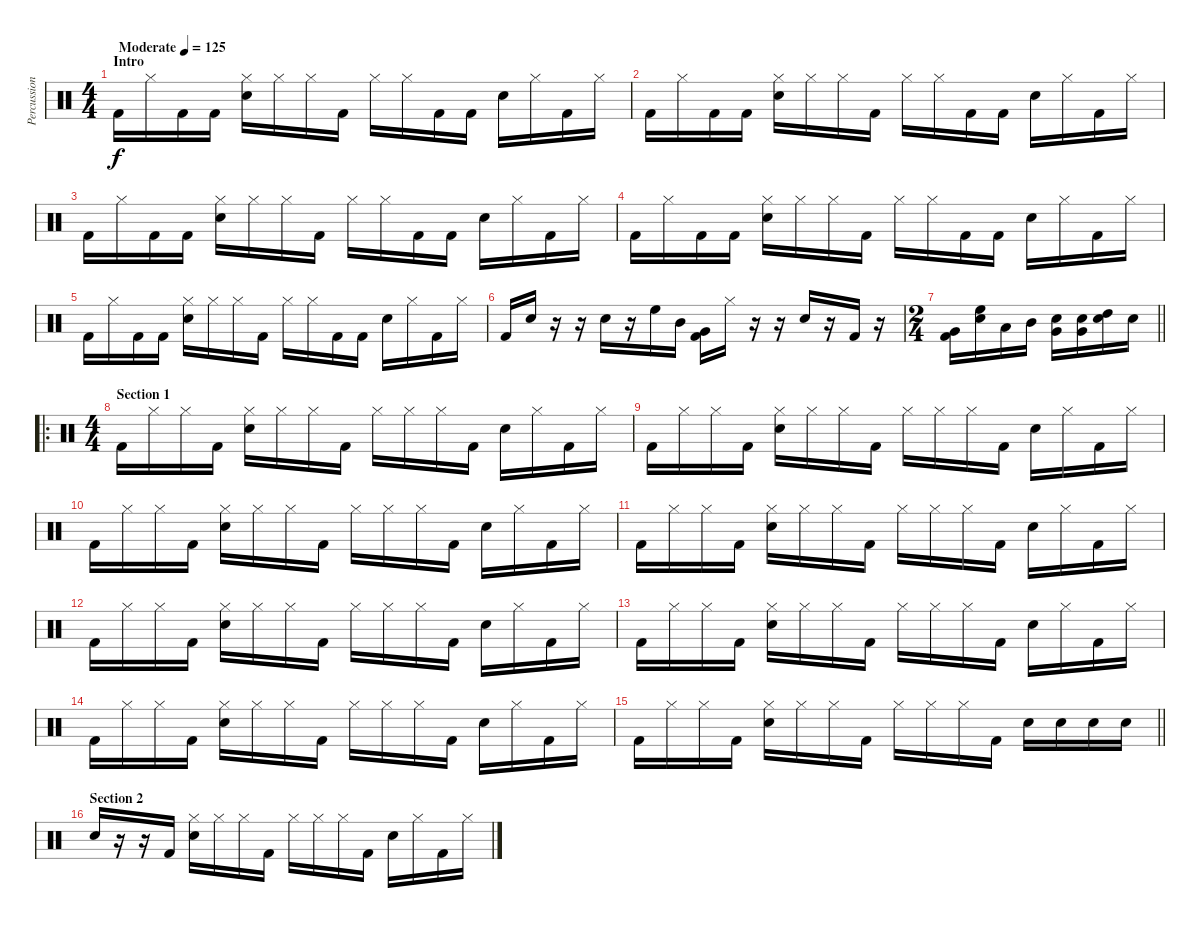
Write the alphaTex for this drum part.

\track ("Percussion" "Percussion") {instrument percussion}
\staff {score}
\articulation defaults
\ts (4 4)
\section ("" "Intro")
\tempo (125 "Moderate")
\clef neutral
\ks c "Kick (hit) 2".16{dy f} "Hi-Hat (closed)".16 "Kick (hit) 2".16 "Kick (hit) 2".16
("Hi-Hat (closed)" "Snare (hit) 2").16 "Hi-Hat (closed)".16 "Hi-Hat (closed)".16 "Kick (hit) 2".16 "Hi-Hat (closed)".16 "Hi-Hat (closed)".16 "Kick (hit) 2".16 "Kick (hit) 2".16 "Snare (hit) 2".16 "Hi-Hat (closed)".16 "Kick (hit) 2".16 "Hi-Hat (closed)".16 |
"Kick (hit) 2".16 "Hi-Hat (closed)".16 "Kick (hit) 2".16 "Kick (hit) 2".16 ("Hi-Hat (closed)" "Snare (hit) 2").16 "Hi-Hat (closed)".16 "Hi-Hat (closed)".16 "Kick (hit) 2".16 "Hi-Hat (closed)".16 "Hi-Hat (closed)".16 "Kick (hit) 2".16 "Kick (hit) 2".16 "Snare (hit) 2".16 "Hi-Hat (closed)".16 "Kick (hit) 2".16 "Hi-Hat (closed)".16 |
"Kick (hit) 2".16 "Hi-Hat (closed)".16 "Kick (hit) 2".16 "Kick (hit) 2".16 ("Hi-Hat (closed)" "Snare (hit) 2").16 "Hi-Hat (closed)".16 "Hi-Hat (closed)".16 "Kick (hit) 2".16 "Hi-Hat (closed)".16 "Hi-Hat (closed)".16 "Kick (hit) 2".16 "Kick (hit) 2".16 "Snare (hit) 2".16 "Hi-Hat (closed)".16 "Kick (hit) 2".16 "Hi-Hat (closed)".16 |
"Kick (hit) 2".16 "Hi-Hat (closed)".16 "Kick (hit) 2".16 "Kick (hit) 2".16 ("Hi-Hat (closed)" "Snare (hit) 2").16 "Hi-Hat (closed)".16 "Hi-Hat (closed)".16 "Kick (hit) 2".16 "Hi-Hat (closed)".16 "Hi-Hat (closed)".16 "Kick (hit) 2".16 "Kick (hit) 2".16 "Snare (hit) 2".16 "Hi-Hat (closed)".16 "Kick (hit) 2".16 "Hi-Hat (closed)".16 |
"Kick (hit) 2".16 "Hi-Hat (closed)".16 "Kick (hit) 2".16 "Kick (hit) 2".16 ("Hi-Hat (closed)" "Snare (hit) 2").16 "Hi-Hat (closed)".16 "Hi-Hat (closed)".16 "Kick (hit) 2".16 "Hi-Hat (closed)".16 "Hi-Hat (closed)".16 "Kick (hit) 2".16 "Kick (hit) 2".16 "Snare (hit) 2".16 "Hi-Hat (closed)".16 "Kick (hit) 2".16 "Hi-Hat (closed)".16 |
"Kick (hit) 2".16 "Snare (hit) 2".16 r.16 r.16 "Snare (hit) 2".16 r.16 "High Floor Tom (hit)".16 "Mid Tom (hit)".16 ("Very Low Tom (hit)" "Kick (hit) 2").16 "Hi-Hat (closed)".16 r.16 r.16 "Snare (hit) 2".16 r.16 "Kick (hit) 2".16 r.16 |
\ts (2 4)
\barLineRight lightlight
("Very Low Tom (hit)" "Kick (hit) 2").16 ("High Floor Tom (hit)" "Snare (hit) 2").16 "Low Tom (hit)".16 "Mid Tom (hit)".16 ("Very Low Tom (hit)" "Snare (hit) 2").16 ("Very Low Tom (hit)" "Snare (hit) 2").16 ("High Tom (hit)" "Snare (hit) 2").16 "Snare (hit) 2".16 |
\ro
\ts (4 4)
\section ("" "Section 1")
"Kick (hit) 2".16 "Hi-Hat (closed)".16 "Hi-Hat (closed)".16 "Kick (hit) 2".16 ("Hi-Hat (closed)" "Snare (hit) 2").16 "Hi-Hat (closed)".16 "Hi-Hat (closed)".16 "Kick (hit) 2".16 "Hi-Hat (closed)".16 "Hi-Hat (closed)".16 "Hi-Hat (closed)".16 "Kick (hit) 2".16 "Snare (hit) 2".16 "Hi-Hat (closed)".16 "Kick (hit) 2".16 "Hi-Hat (closed)".16 |
"Kick (hit) 2".16 "Hi-Hat (closed)".16 "Hi-Hat (closed)".16 "Kick (hit) 2".16 ("Hi-Hat (closed)" "Snare (hit) 2").16 "Hi-Hat (closed)".16 "Hi-Hat (closed)".16 "Kick (hit) 2".16 "Hi-Hat (closed)".16 "Hi-Hat (closed)".16 "Hi-Hat (closed)".16 "Kick (hit) 2".16 "Snare (hit) 2".16 "Hi-Hat (closed)".16 "Kick (hit) 2".16 "Hi-Hat (closed)".16 |
"Kick (hit) 2".16 "Hi-Hat (closed)".16 "Hi-Hat (closed)".16 "Kick (hit) 2".16 ("Hi-Hat (closed)" "Snare (hit) 2").16 "Hi-Hat (closed)".16 "Hi-Hat (closed)".16 "Kick (hit) 2".16 "Hi-Hat (closed)".16 "Hi-Hat (closed)".16 "Hi-Hat (closed)".16 "Kick (hit) 2".16 "Snare (hit) 2".16 "Hi-Hat (closed)".16 "Kick (hit) 2".16 "Hi-Hat (closed)".16 |
"Kick (hit) 2".16 "Hi-Hat (closed)".16 "Hi-Hat (closed)".16 "Kick (hit) 2".16 ("Hi-Hat (closed)" "Snare (hit) 2").16 "Hi-Hat (closed)".16 "Hi-Hat (closed)".16 "Kick (hit) 2".16 "Hi-Hat (closed)".16 "Hi-Hat (closed)".16 "Hi-Hat (closed)".16 "Kick (hit) 2".16 "Snare (hit) 2".16 "Hi-Hat (closed)".16 "Kick (hit) 2".16 "Hi-Hat (closed)".16 |
"Kick (hit) 2".16 "Hi-Hat (closed)".16 "Hi-Hat (closed)".16 "Kick (hit) 2".16 ("Hi-Hat (closed)" "Snare (hit) 2").16 "Hi-Hat (closed)".16 "Hi-Hat (closed)".16 "Kick (hit) 2".16 "Hi-Hat (closed)".16 "Hi-Hat (closed)".16 "Hi-Hat (closed)".16 "Kick (hit) 2".16 "Snare (hit) 2".16 "Hi-Hat (closed)".16 "Kick (hit) 2".16 "Hi-Hat (closed)".16 |
"Kick (hit) 2".16 "Hi-Hat (closed)".16 "Hi-Hat (closed)".16 "Kick (hit) 2".16 ("Hi-Hat (closed)" "Snare (hit) 2").16 "Hi-Hat (closed)".16 "Hi-Hat (closed)".16 "Kick (hit) 2".16 "Hi-Hat (closed)".16 "Hi-Hat (closed)".16 "Hi-Hat (closed)".16 "Kick (hit) 2".16 "Snare (hit) 2".16 "Hi-Hat (closed)".16 "Kick (hit) 2".16 "Hi-Hat (closed)".16 |
"Kick (hit) 2".16 "Hi-Hat (closed)".16 "Hi-Hat (closed)".16 "Kick (hit) 2".16 ("Hi-Hat (closed)" "Snare (hit) 2").16 "Hi-Hat (closed)".16 "Hi-Hat (closed)".16 "Kick (hit) 2".16 "Hi-Hat (closed)".16 "Hi-Hat (closed)".16 "Hi-Hat (closed)".16 "Kick (hit) 2".16 "Snare (hit) 2".16 "Hi-Hat (closed)".16 "Kick (hit) 2".16 "Hi-Hat (closed)".16 |
\barLineRight lightlight "Kick (hit) 2".16 "Hi-Hat (closed)".16 "Hi-Hat (closed)".16 "Kick (hit) 2".16
("Hi-Hat (closed)" "Snare (hit) 2").16 "Hi-Hat (closed)".16 "Hi-Hat (closed)".16 "Kick (hit) 2".16 "Hi-Hat (closed)".16 "Hi-Hat (closed)".16 "Hi-Hat (closed)".16 "Kick (hit) 2".16 "Snare (hit) 2".16 "Snare (hit) 2".16 "Snare (hit) 2".16 "Snare (hit) 2".16 |
\section ("" "Section 2")
"Snare (hit) 2".16 r.16 r.16 "Kick (hit) 2".16 ("Hi-Hat (closed)" "Snare (hit) 2").16 "Hi-Hat (closed)".16 "Hi-Hat (closed)".16 "Kick (hit) 2".16 "Hi-Hat (closed)".16 "Hi-Hat (closed)".16 "Hi-Hat (closed)".16 "Kick (hit) 2".16 "Snare (hit) 2".16 "Hi-Hat (closed)".16 "Kick (hit) 2".16 "Hi-Hat (closed)".16
